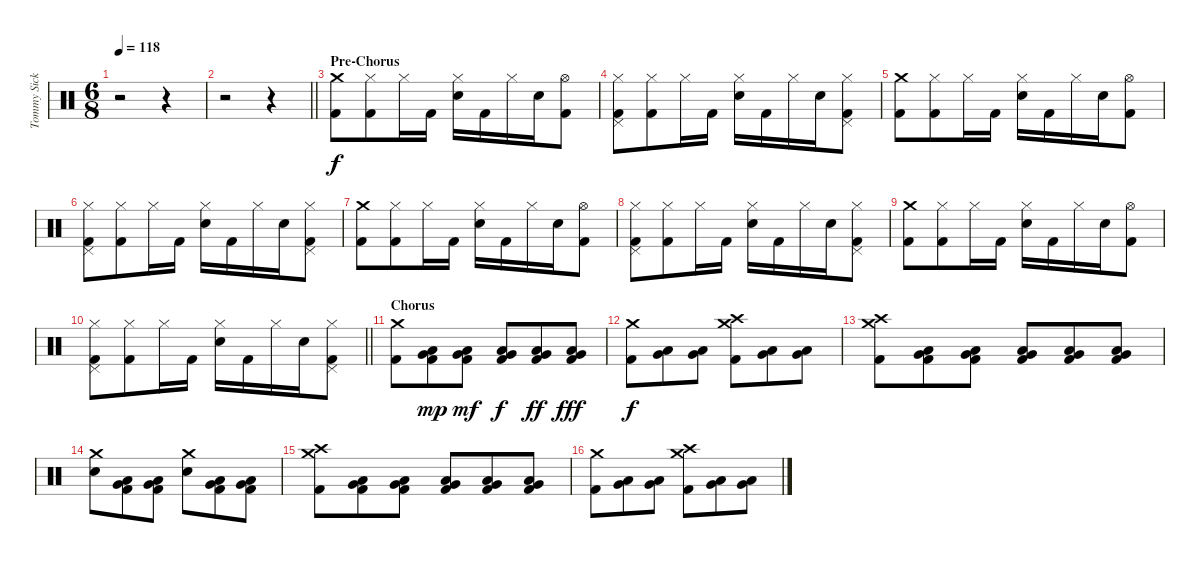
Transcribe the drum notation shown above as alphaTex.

\track ("Tommy Sickles" "Tommy Sick") {instrument percussion}
\staff {score}
\articulation defaults
\ts (6 8)
\tempo 118
\clef neutral
\ks c
r.2{dy f} r.4 |
\barLineRight lightlight
r.2 r.4 |
\section ("" "Pre-Chorus")
("Crash medium (hit)" "Kick (hit) 2").8 ("Hi-Hat (closed)" "Kick (hit) 2").8 "Hi-Hat (closed)".16 "Kick (hit) 2".16 ("Hi-Hat (closed)" "Electric Snare (hit)").16 "Kick (hit) 2".16 "Hi-Hat (closed)".16 "Electric Snare (hit)".16 ("Hi-Hat (open)" "Kick (hit) 2").8 |
("Pedal Hi-Hat (hit)" "Hi-Hat (closed)" "Kick (hit) 2").8 ("Hi-Hat (closed)" "Kick (hit) 2").8 "Hi-Hat (closed)".16 "Kick (hit) 2".16 ("Hi-Hat (closed)" "Electric Snare (hit)").16 "Kick (hit) 2".16 "Hi-Hat (closed)".16 "Electric Snare (hit)".16 ("Pedal Hi-Hat (hit)" "Hi-Hat (closed)" "Kick (hit) 2").8 |
("Crash medium (hit)" "Kick (hit) 2").8 ("Hi-Hat (closed)" "Kick (hit) 2").8 "Hi-Hat (closed)".16 "Kick (hit) 2".16 ("Hi-Hat (closed)" "Electric Snare (hit)").16 "Kick (hit) 2".16 "Hi-Hat (closed)".16 "Electric Snare (hit)".16 ("Hi-Hat (open)" "Kick (hit) 2").8 |
("Pedal Hi-Hat (hit)" "Hi-Hat (closed)" "Kick (hit) 2").8 ("Hi-Hat (closed)" "Kick (hit) 2").8 "Hi-Hat (closed)".16 "Kick (hit) 2".16 ("Hi-Hat (closed)" "Electric Snare (hit)").16 "Kick (hit) 2".16 "Hi-Hat (closed)".16 "Electric Snare (hit)".16 ("Pedal Hi-Hat (hit)" "Hi-Hat (closed)" "Kick (hit) 2").8 |
("Crash medium (hit)" "Kick (hit) 2").8 ("Hi-Hat (closed)" "Kick (hit) 2").8 "Hi-Hat (closed)".16 "Kick (hit) 2".16 ("Hi-Hat (closed)" "Electric Snare (hit)").16 "Kick (hit) 2".16 "Hi-Hat (closed)".16 "Electric Snare (hit)".16 ("Hi-Hat (open)" "Kick (hit) 2").8 |
("Pedal Hi-Hat (hit)" "Hi-Hat (closed)" "Kick (hit) 2").8 ("Hi-Hat (closed)" "Kick (hit) 2").8 "Hi-Hat (closed)".16 "Kick (hit) 2".16 ("Hi-Hat (closed)" "Electric Snare (hit)").16 "Kick (hit) 2".16 "Hi-Hat (closed)".16 "Electric Snare (hit)".16 ("Pedal Hi-Hat (hit)" "Hi-Hat (closed)" "Kick (hit) 2").8 |
("Crash medium (hit)" "Kick (hit) 2").8 ("Hi-Hat (closed)" "Kick (hit) 2").8 "Hi-Hat (closed)".16 "Kick (hit) 2".16 ("Hi-Hat (closed)" "Electric Snare (hit)").16 "Kick (hit) 2".16 "Hi-Hat (closed)".16 "Electric Snare (hit)".16 ("Hi-Hat (open)" "Kick (hit) 2").8 |
\barLineRight lightlight
("Pedal Hi-Hat (hit)" "Hi-Hat (closed)" "Kick (hit) 2").8 ("Hi-Hat (closed)" "Kick (hit) 2").8 "Hi-Hat (closed)".16 "Kick (hit) 2".16 ("Hi-Hat (closed)" "Electric Snare (hit)").16 "Kick (hit) 2".16 "Hi-Hat (closed)".16 "Electric Snare (hit)".16 ("Pedal Hi-Hat (hit)" "Hi-Hat (closed)" "Kick (hit) 2").8 |
\section ("" "Chorus")
("Crash medium (hit)" "Kick (hit) 2").8 ("Low Tom (hit)" "Very Low Tom (hit)" "Kick (hit) 2").8{dy mp} ("Low Tom (hit)" "Very Low Tom (hit)" "Kick (hit) 2").8{dy mf} ("Low Tom (hit)" "Very Low Tom (hit)" "Kick (hit) 2").8{dy f} ("Low Tom (hit)" "Very Low Tom (hit)" "Kick (hit) 2").8{dy ff} ("Low Tom (hit)" "Very Low Tom (hit)" "Kick (hit) 2").8{dy fff} |
("Crash medium (hit)" "Kick (hit) 2").8{dy f} ("Low Tom (hit)" "Very Low Tom (hit)").8 ("Low Tom (hit)" "Very Low Tom (hit)").8 ("Crash high (hit)" "Crash medium (hit)" "Kick (hit) 2").8 ("Low Tom (hit)" "Very Low Tom (hit)").8 ("Low Tom (hit)" "Very Low Tom (hit)").8 |
("Crash high (hit)" "Crash medium (hit)" "Kick (hit) 2").8 ("Low Tom (hit)" "Very Low Tom (hit)" "Kick (hit) 2").8 ("Low Tom (hit)" "Very Low Tom (hit)" "Kick (hit) 2").8 ("Low Tom (hit)" "Very Low Tom (hit)" "Kick (hit) 2").8 ("Low Tom (hit)" "Very Low Tom (hit)" "Kick (hit) 2").8 ("Low Tom (hit)" "Very Low Tom (hit)" "Kick (hit) 2").8 |
("Crash medium (hit)" "Electric Snare (hit)").8 ("Low Tom (hit)" "Very Low Tom (hit)" "Kick (hit) 2").8 ("Low Tom (hit)" "Very Low Tom (hit)" "Kick (hit) 2").8 ("Crash medium (hit)" "Electric Snare (hit)").8 ("Low Tom (hit)" "Very Low Tom (hit)" "Kick (hit) 2").8 ("Low Tom (hit)" "Very Low Tom (hit)" "Kick (hit) 2").8 |
("Crash high (hit)" "Crash medium (hit)" "Kick (hit) 2").8 ("Low Tom (hit)" "Very Low Tom (hit)" "Kick (hit) 2").8 ("Low Tom (hit)" "Very Low Tom (hit)" "Kick (hit) 2").8 ("Low Tom (hit)" "Very Low Tom (hit)" "Kick (hit) 2").8 ("Low Tom (hit)" "Very Low Tom (hit)" "Kick (hit) 2").8 ("Low Tom (hit)" "Very Low Tom (hit)" "Kick (hit) 2").8 |
("Crash medium (hit)" "Kick (hit) 2").8 ("Low Tom (hit)" "Very Low Tom (hit)").8 ("Low Tom (hit)" "Very Low Tom (hit)").8 ("Crash high (hit)" "Crash medium (hit)" "Kick (hit) 2").8 ("Low Tom (hit)" "Very Low Tom (hit)").8 ("Low Tom (hit)" "Very Low Tom (hit)").8
